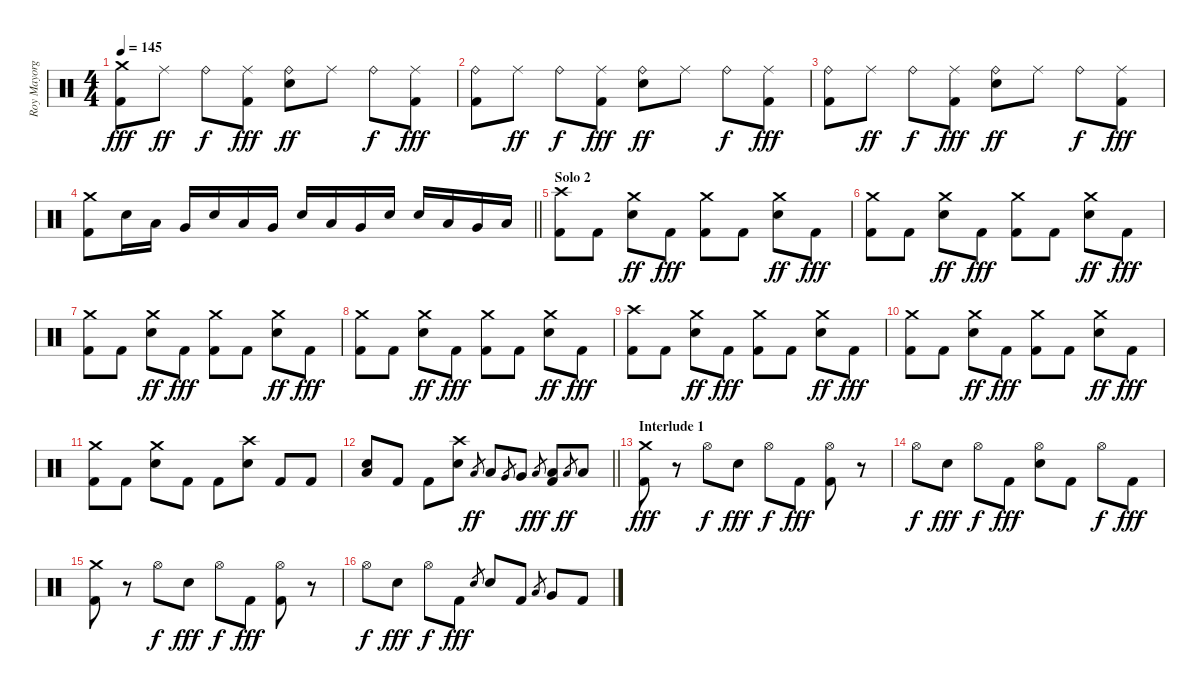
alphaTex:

\track ("Roy Mayorga" "Roy Mayorg") {instrument percussion}
\staff {score}
\articulation defaults
\ts (4 4)
\tempo 145
\clef neutral
\ks c
("Crash medium (hit)" "Kick (hit) 2").8{dy fff} "Ride (middle)".8{dy ff} "Ride (bell)".8{dy f} ("Ride (middle)" "Kick (hit) 2").8{dy fff} ("Ride (bell)" "Electric Snare (hit)").8{dy ff} "Ride (middle)".8 "Ride (bell)".8{dy f} ("Ride (middle)" "Kick (hit) 2").8{dy fff} |
("Ride (bell)" "Kick (hit) 2").8 "Ride (middle)".8{dy ff} "Ride (bell)".8{dy f} ("Ride (middle)" "Kick (hit) 2").8{dy fff} ("Ride (bell)" "Electric Snare (hit)").8{dy ff} "Ride (middle)".8 "Ride (bell)".8{dy f} ("Ride (middle)" "Kick (hit) 2").8{dy fff} |
("Ride (bell)" "Kick (hit) 2").8 "Ride (middle)".8{dy ff} "Ride (bell)".8{dy f} ("Ride (middle)" "Kick (hit) 2").8{dy fff} ("Ride (bell)" "Electric Snare (hit)").8{dy ff} "Ride (middle)".8 "Ride (bell)".8{dy f} ("Ride (middle)" "Kick (hit) 2").8{dy fff} |
\barLineRight lightlight
("Crash medium (hit)" "Kick (hit) 2").8 "Electric Snare (hit)".16 "Low Tom (hit)".16 "Very Low Tom (hit)".16 "Electric Snare (hit)".16 "Low Tom (hit)".16 "Very Low Tom (hit)".16 "Electric Snare (hit)".16 "Low Tom (hit)".16 "Very Low Tom (hit)".16 "Electric Snare (hit)".16 "Electric Snare (hit)".16 "Low Tom (hit)".16 "Very Low Tom (hit)".16 "Low Floor Tom (hit)".16 |
\section ("" "Solo 2")
("Crash high (hit)" "Kick (hit) 2").8 "Kick (hit) 2".8 ("Crash medium (hit)" "Electric Snare (hit)").8{dy ff} "Kick (hit) 2".8{dy fff} ("Crash medium (hit)" "Kick (hit) 2").8 "Kick (hit) 2".8 ("Crash medium (hit)" "Electric Snare (hit)").8{dy ff} "Kick (hit) 2".8{dy fff} |
("Crash medium (hit)" "Kick (hit) 2").8 "Kick (hit) 2".8 ("Crash medium (hit)" "Electric Snare (hit)").8{dy ff} "Kick (hit) 2".8{dy fff} ("Crash medium (hit)" "Kick (hit) 2").8 "Kick (hit) 2".8 ("Crash medium (hit)" "Electric Snare (hit)").8{dy ff} "Kick (hit) 2".8{dy fff} |
("Crash medium (hit)" "Kick (hit) 2").8 "Kick (hit) 2".8 ("Crash medium (hit)" "Electric Snare (hit)").8{dy ff} "Kick (hit) 2".8{dy fff} ("Crash medium (hit)" "Kick (hit) 2").8 "Kick (hit) 2".8 ("Crash medium (hit)" "Electric Snare (hit)").8{dy ff} "Kick (hit) 2".8{dy fff} |
("Crash medium (hit)" "Kick (hit) 2").8 "Kick (hit) 2".8 ("Crash medium (hit)" "Electric Snare (hit)").8{dy ff} "Kick (hit) 2".8{dy fff} ("Crash medium (hit)" "Kick (hit) 2").8 "Kick (hit) 2".8 ("Crash medium (hit)" "Electric Snare (hit)").8{dy ff} "Kick (hit) 2".8{dy fff} |
("Crash high (hit)" "Kick (hit) 2").8 "Kick (hit) 2".8 ("Crash medium (hit)" "Electric Snare (hit)").8{dy ff} "Kick (hit) 2".8{dy fff} ("Crash medium (hit)" "Kick (hit) 2").8 "Kick (hit) 2".8 ("Crash medium (hit)" "Electric Snare (hit)").8{dy ff} "Kick (hit) 2".8{dy fff} |
("Crash medium (hit)" "Kick (hit) 2").8 "Kick (hit) 2".8 ("Crash medium (hit)" "Electric Snare (hit)").8{dy ff} "Kick (hit) 2".8{dy fff} ("Crash medium (hit)" "Kick (hit) 2").8 "Kick (hit) 2".8 ("Crash medium (hit)" "Electric Snare (hit)").8{dy ff} "Kick (hit) 2".8{dy fff} |
("Crash medium (hit)" "Kick (hit) 2").8 "Kick (hit) 2".8 ("Crash medium (hit)" "Electric Snare (hit)").8 "Kick (hit) 2".8 "Kick (hit) 2".8 ("Crash high (hit)" "Electric Snare (hit)").8 "Kick (hit) 2".8 "Kick (hit) 2".8 |
\barLineRight lightlight
("Electric Snare (hit)" "Low Floor Tom (hit)").8 "Kick (hit) 2".8 "Kick (hit) 2".8 ("Crash high (hit)" "Electric Snare (hit)").8 "Low Tom (hit)".8{gr dy ff} "Low Tom (hit)".8 "Very Low Tom (hit)".8{gr} "Very Low Tom (hit)".8 "Low Floor Tom (hit)".8{gr dy fff} ("Low Floor Tom (hit)" "Kick (hit) 2").8 "Low Floor Tom (hit)".8{gr dy ff} "Low Floor Tom (hit)".8 |
\section ("" "Interlude 1")
("Crash medium (hit)" "Kick (hit) 2").8{dy fff} r.8 "Hi-Hat (open)".8{dy f} "Electric Snare (hit)".8{dy fff} "Hi-Hat (open)".8{dy f} "Kick (hit) 2".8{dy fff} ("Hi-Hat (open)" "Kick (hit) 2").8 r.8 |
"Hi-Hat (open)".8{dy f} "Electric Snare (hit)".8{dy fff} "Hi-Hat (open)".8{dy f} "Kick (hit) 2".8{dy fff} ("Hi-Hat (open)" "Electric Snare (hit)").8 "Kick (hit) 2".8 "Hi-Hat (open)".8{dy f} "Kick (hit) 2".8{dy fff} |
("Crash medium (hit)" "Kick (hit) 2").8 r.8 "Hi-Hat (open)".8{dy f} "Electric Snare (hit)".8{dy fff} "Hi-Hat (open)".8{dy f} "Kick (hit) 2".8{dy fff} ("Hi-Hat (open)" "Kick (hit) 2").8 r.8 |
"Hi-Hat (open)".8{dy f} "Electric Snare (hit)".8{dy fff} "Hi-Hat (open)".8{dy f} "Kick (hit) 2".8{dy fff} "Electric Snare (hit)".8{gr} "Electric Snare (hit)".8 "Kick (hit) 2".8 "Low Floor Tom (hit)".8{gr} "Very Low Tom (hit)".8 "Kick (hit) 2".8
